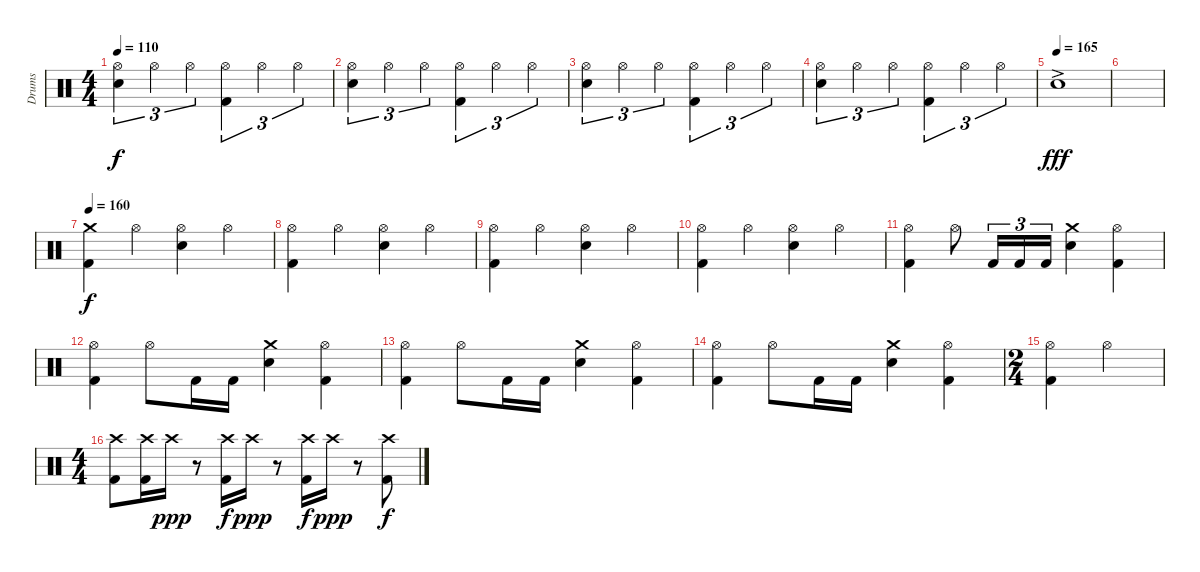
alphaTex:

\track ("Drums" "Drums") {instrument percussion}
\staff {score}
\articulation defaults
\ts (4 4)
\tempo 110
\clef neutral
\ks c
("Hi-Hat (open)" "Electric Snare (hit)").4{tu (3 2) dy f} "Hi-Hat (open)".4{tu (3 2)} "Hi-Hat (open)".4{tu (3 2)} ("Hi-Hat (open)" "Kick (hit) 2").4{tu (3 2)} "Hi-Hat (open)".4{tu (3 2)} "Hi-Hat (open)".4{tu (3 2)} |
("Hi-Hat (open)" "Electric Snare (hit)").4{tu (3 2)} "Hi-Hat (open)".4{tu (3 2)} "Hi-Hat (open)".4{tu (3 2)} ("Hi-Hat (open)" "Kick (hit) 2").4{tu (3 2)} "Hi-Hat (open)".4{tu (3 2)} "Hi-Hat (open)".4{tu (3 2)} |
("Hi-Hat (open)" "Electric Snare (hit)").4{tu (3 2)} "Hi-Hat (open)".4{tu (3 2)} "Hi-Hat (open)".4{tu (3 2)} ("Hi-Hat (open)" "Kick (hit) 2").4{tu (3 2)} "Hi-Hat (open)".4{tu (3 2)} "Hi-Hat (open)".4{tu (3 2)} |
("Hi-Hat (open)" "Electric Snare (hit)").4{tu (3 2)} "Hi-Hat (open)".4{tu (3 2)} "Hi-Hat (open)".4{tu (3 2)} ("Hi-Hat (open)" "Kick (hit) 2").4{tu (3 2)} "Hi-Hat (open)".4{tu (3 2)} "Hi-Hat (open)".4{tu (3 2)} |
\tempo (165)
"Electric Snare (hit)"{ac}.1{dy fff} |
|
\tempo 160
("Crash medium (hit)" "Kick (hit) 2").4{dy f} "Hi-Hat (open)".4 ("Hi-Hat (open)" "Electric Snare (hit)").4 "Hi-Hat (open)".4 |
("Hi-Hat (open)" "Kick (hit) 2").4 "Hi-Hat (open)".4 ("Hi-Hat (open)" "Electric Snare (hit)").4 "Hi-Hat (open)".4 |
("Hi-Hat (open)" "Kick (hit) 2").4 "Hi-Hat (open)".4 ("Hi-Hat (open)" "Electric Snare (hit)").4 "Hi-Hat (open)".4 |
("Hi-Hat (open)" "Kick (hit) 2").4 "Hi-Hat (open)".4 ("Hi-Hat (open)" "Electric Snare (hit)").4 "Hi-Hat (open)".4 |
("Hi-Hat (open)" "Kick (hit) 2").4 "Hi-Hat (open)".8 "Kick (hit) 2".16{tu (3 2)} "Kick (hit) 2".16{tu (3 2)} "Kick (hit) 2".16{tu (3 2)} ("Crash medium (hit)" "Electric Snare (hit)").4 ("Hi-Hat (open)" "Kick (hit) 2").4 |
("Hi-Hat (open)" "Kick (hit) 2").4 "Hi-Hat (open)".8 "Kick (hit) 2".16 "Kick (hit) 2".16 ("Crash medium (hit)" "Electric Snare (hit)").4 ("Hi-Hat (open)" "Kick (hit) 2").4 |
("Hi-Hat (open)" "Kick (hit) 2").4 "Hi-Hat (open)".8 "Kick (hit) 2".16 "Kick (hit) 2".16 ("Crash medium (hit)" "Electric Snare (hit)").4 ("Hi-Hat (open)" "Kick (hit) 2").4 |
("Hi-Hat (open)" "Kick (hit) 2").4 "Hi-Hat (open)".8 "Kick (hit) 2".16 "Kick (hit) 2".16 ("Crash medium (hit)" "Electric Snare (hit)").4 ("Hi-Hat (open)" "Kick (hit) 2").4 |
\ts (2 4)
("Hi-Hat (open)" "Kick (hit) 2").4 "Hi-Hat (open)".4 |
\ts (4 4)
("Crash high (hit)" "Kick (hit) 2").8 ("Crash high (hit)" "Kick (hit) 2").16 "Crash high (hit)".16{dy ppp} r.8 ("Crash high (hit)" "Kick (hit) 2").16{dy f} "Crash high (hit)".16{dy ppp} r.8 ("Crash high (hit)" "Kick (hit) 2").16{dy f} "Crash high (hit)".16{dy ppp} r.8 ("Crash high (hit)" "Kick (hit) 2").8{dy f}
